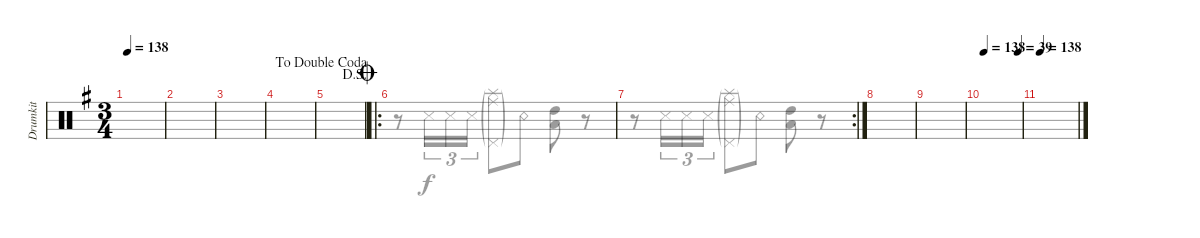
\track ("Drumkit" "Drumkit") {instrument percussion}
\staff {score}
\articulation defaults
\voice
\ts (3 4)
\tempo 138
\clef neutral
\ks eminor
|
|
|
|
\jump dalsegno
\jump dadoublecoda
|
\ro
\jump coda
|
\rc 2
|
|
|
\tempo 138
\tempo (39 0.9166666666666666)
|
\tempo 138
|
|
|
|
|
\voice
\clef neutral
\ks eminor
|
|
|
|
|
r.8 "Snare (side stick) 3".16{tu (3 2)} "Snare (side stick) 3".16{tu (3 2)} "Snare (side stick) 3".16{tu (3 2)} ("Ride (middle)"{g} "Splash (hit)"{g} "Pedal Hi-Hat (hit)"{g}).8 "Snare (rim shot)".8 ("High Tom (hit)" "Low Tom (hit)").8 r.8 |
r.8 "Snare (side stick) 3".16{tu (3 2)} "Snare (side stick) 3".16{tu (3 2)} "Snare (side stick) 3".16{tu (3 2)} ("Ride (middle)"{g} "Splash (hit)"{g} "Pedal Hi-Hat (hit)"{g}).8 "Snare (rim shot)".8 ("High Tom (hit)" "Low Tom (hit)").8 r.8 |
|
|
|
|
|
|
|
|
